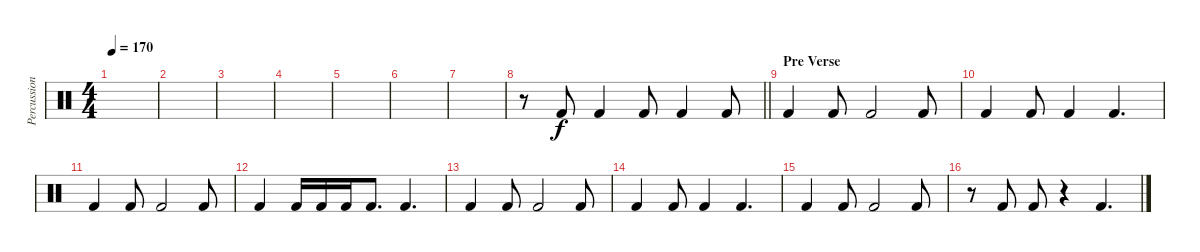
\track ("Percussioni" "Percussion") {instrument percussion}
\staff
\articulation defaults
\ts (4 4)
\tempo 170
\clef neutral
\ks c
|
|
|
|
|
|
|
\barLineRight lightlight
r.8 "Kick (hit) 2".8 "Kick (hit) 2".4 "Kick (hit) 2".8 "Kick (hit) 2".4 "Kick (hit) 2".8 |
\section ("" "Pre Verse")
"Kick (hit) 2".4 "Kick (hit) 2".8 "Kick (hit) 2".2 "Kick (hit) 2".8 |
"Kick (hit) 2".4 "Kick (hit) 2".8 "Kick (hit) 2".4 "Kick (hit) 2".4{d} |
"Kick (hit) 2".4 "Kick (hit) 2".8 "Kick (hit) 2".2 "Kick (hit) 2".8 |
"Kick (hit) 2".4 "Kick (hit) 2".16 "Kick (hit) 2".16 "Kick (hit) 2".16 "Kick (hit) 2".8{d} "Kick (hit) 2".4{d} |
"Kick (hit) 2".4 "Kick (hit) 2".8 "Kick (hit) 2".2 "Kick (hit) 2".8 |
"Kick (hit) 2".4 "Kick (hit) 2".8 "Kick (hit) 2".4 "Kick (hit) 2".4{d} |
"Kick (hit) 2".4 "Kick (hit) 2".8 "Kick (hit) 2".2 "Kick (hit) 2".8 |
r.8 "Kick (hit) 2".8 "Kick (hit) 2".8 r.4 "Kick (hit) 2".4{d}
